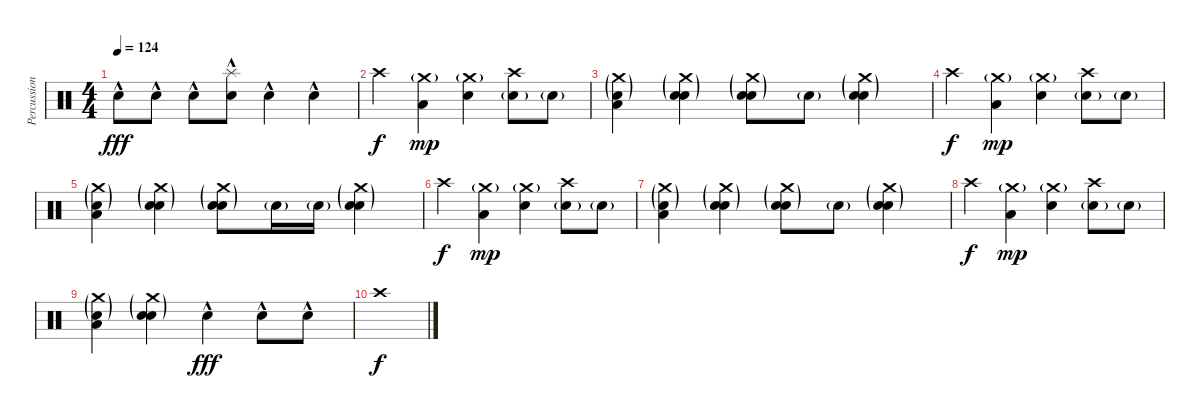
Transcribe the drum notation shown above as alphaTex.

\track ("Percussions" "Percussion") {instrument percussion}
\staff {score}
\articulation defaults
\ts (4 4)
\tempo 124
\clef neutral
\ks c "Electric Snare (hit)"{hac}.8{dy fff} "Electric Snare (hit)"{hac}.8 "Electric Snare (hit)"{hac}.8
("Splash (hit)" "Electric Snare (hit)"{hac}).8 "Snare (hit) 2"{hac}.4 "Electric Snare (hit)"{hac}.4 |
"Crash high (hit)".4{dy f} ("Crash medium (hit)"{g} "Low Tom (hit)").4{dy mp} ("Crash medium (hit)"{g} "Electric Snare (hit)").4 ("Snare (hit) 2"{g} "Crash high (hit)").8 "Snare (hit) 2"{g}.8 |
("Snare (hit) 2"{g} "Crash medium (hit)"{g} "Low Tom (hit)").4 ("Snare (hit) 2"{g} "Crash medium (hit)"{g} "Electric Snare (hit)").4 ("Snare (hit) 2"{g} "Crash medium (hit)"{g} "Electric Snare (hit)").8 "Snare (hit) 2"{g}.8 ("Snare (hit) 2"{g} "Crash medium (hit)"{g} "Electric Snare (hit)").4 |
"Crash high (hit)".4{dy f} ("Crash medium (hit)"{g} "Low Tom (hit)").4{dy mp} ("Crash medium (hit)"{g} "Electric Snare (hit)").4 ("Snare (hit) 2"{g} "Crash high (hit)").8 "Snare (hit) 2"{g}.8 |
("Snare (hit) 2"{g} "Crash medium (hit)"{g} "Low Tom (hit)").4 ("Snare (hit) 2"{g} "Crash medium (hit)"{g} "Electric Snare (hit)").4 ("Snare (hit) 2"{g} "Crash medium (hit)"{g} "Electric Snare (hit)").8 "Snare (hit) 2"{g}.16 "Snare (hit) 2"{g}.16 ("Snare (hit) 2"{g} "Crash medium (hit)"{g} "Electric Snare (hit)").4 |
"Crash high (hit)".4{dy f} ("Crash medium (hit)"{g} "Low Tom (hit)").4{dy mp} ("Crash medium (hit)"{g} "Electric Snare (hit)").4 ("Snare (hit) 2"{g} "Crash high (hit)").8 "Snare (hit) 2"{g}.8 |
("Snare (hit) 2"{g} "Crash medium (hit)"{g} "Low Tom (hit)").4 ("Snare (hit) 2"{g} "Crash medium (hit)"{g} "Electric Snare (hit)").4 ("Snare (hit) 2"{g} "Crash medium (hit)"{g} "Electric Snare (hit)").8 "Snare (hit) 2"{g}.8 ("Snare (hit) 2"{g} "Crash medium (hit)"{g} "Electric Snare (hit)").4 |
"Crash high (hit)".4{dy f} ("Crash medium (hit)"{g} "Low Tom (hit)").4{dy mp} ("Crash medium (hit)"{g} "Electric Snare (hit)").4 ("Snare (hit) 2"{g} "Crash high (hit)").8 "Snare (hit) 2"{g}.8 |
("Snare (hit) 2"{g} "Crash medium (hit)"{g} "Low Tom (hit)").4 ("Snare (hit) 2"{g} "Crash medium (hit)"{g} "Electric Snare (hit)").4 "Snare (hit) 2"{hac}.4{dy fff} "Snare (hit) 2"{hac}.8 "Snare (hit) 2"{hac}.8 |
"Crash high (hit)".1{dy f}
